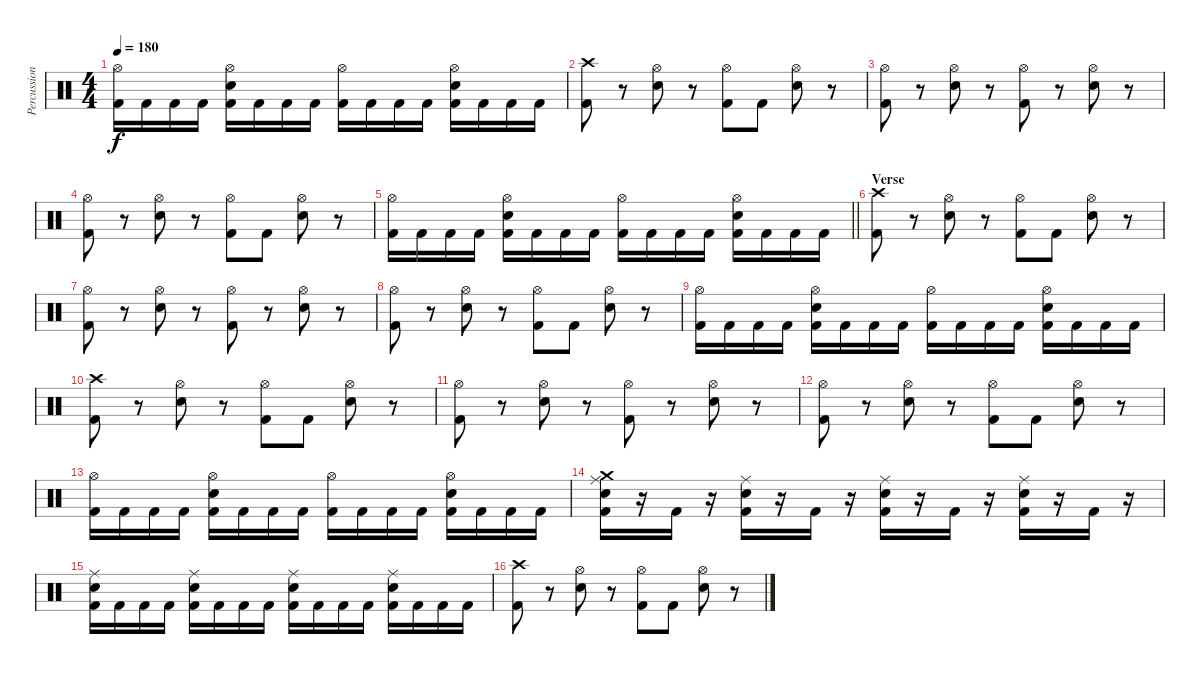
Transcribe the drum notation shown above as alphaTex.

\track ("Percussion" "Percussion") {instrument percussion}
\staff {score}
\articulation defaults
\ts (4 4)
\tempo 180
\clef neutral
\ks c
("Hi-Hat (open)" "Kick (hit) 2").16{dy f} "Kick (hit) 2".16 "Kick (hit) 2".16 "Kick (hit) 2".16 ("Hi-Hat (open)" "Snare (hit) 2" "Kick (hit) 2").16 "Kick (hit) 2".16 "Kick (hit) 2".16 "Kick (hit) 2".16 ("Hi-Hat (open)" "Kick (hit) 2").16 "Kick (hit) 2".16 "Kick (hit) 2".16 "Kick (hit) 2".16 ("Hi-Hat (open)" "Snare (hit) 2" "Kick (hit) 2").16 "Kick (hit) 2".16 "Kick (hit) 2".16 "Kick (hit) 2".16 |
("Crash high (hit)" "Kick (hit) 2").8 r.8 ("Hi-Hat (open)" "Snare (hit) 2").8 r.8 ("Hi-Hat (open)" "Kick (hit) 2").8 "Kick (hit) 2".8 ("Hi-Hat (open)" "Snare (hit) 2").8 r.8 |
("Hi-Hat (open)" "Kick (hit) 2").8 r.8 ("Hi-Hat (open)" "Snare (hit) 2").8 r.8 ("Hi-Hat (open)" "Kick (hit) 2").8 r.8 ("Hi-Hat (open)" "Snare (hit) 2").8 r.8 |
("Hi-Hat (open)" "Kick (hit) 2").8 r.8 ("Hi-Hat (open)" "Snare (hit) 2").8 r.8 ("Hi-Hat (open)" "Kick (hit) 2").8 "Kick (hit) 2".8 ("Hi-Hat (open)" "Snare (hit) 2").8 r.8 |
\barLineRight lightlight
("Hi-Hat (open)" "Kick (hit) 2").16 "Kick (hit) 2".16 "Kick (hit) 2".16 "Kick (hit) 2".16 ("Hi-Hat (open)" "Snare (hit) 2" "Kick (hit) 2").16 "Kick (hit) 2".16 "Kick (hit) 2".16 "Kick (hit) 2".16 ("Hi-Hat (open)" "Kick (hit) 2").16 "Kick (hit) 2".16 "Kick (hit) 2".16 "Kick (hit) 2".16 ("Hi-Hat (open)" "Snare (hit) 2" "Kick (hit) 2").16 "Kick (hit) 2".16 "Kick (hit) 2".16 "Kick (hit) 2".16 |
\section ("" "Verse")
("Crash high (hit)" "Kick (hit) 2").8 r.8 ("Hi-Hat (open)" "Snare (hit) 2").8 r.8 ("Hi-Hat (open)" "Kick (hit) 2").8 "Kick (hit) 2".8 ("Hi-Hat (open)" "Snare (hit) 2").8 r.8 |
("Hi-Hat (open)" "Kick (hit) 2").8 r.8 ("Hi-Hat (open)" "Snare (hit) 2").8 r.8 ("Hi-Hat (open)" "Kick (hit) 2").8 r.8 ("Hi-Hat (open)" "Snare (hit) 2").8 r.8 |
("Hi-Hat (open)" "Kick (hit) 2").8 r.8 ("Hi-Hat (open)" "Snare (hit) 2").8 r.8 ("Hi-Hat (open)" "Kick (hit) 2").8 "Kick (hit) 2".8 ("Hi-Hat (open)" "Snare (hit) 2").8 r.8 |
("Hi-Hat (open)" "Kick (hit) 2").16 "Kick (hit) 2".16 "Kick (hit) 2".16 "Kick (hit) 2".16 ("Hi-Hat (open)" "Snare (hit) 2" "Kick (hit) 2").16 "Kick (hit) 2".16 "Kick (hit) 2".16 "Kick (hit) 2".16 ("Hi-Hat (open)" "Kick (hit) 2").16 "Kick (hit) 2".16 "Kick (hit) 2".16 "Kick (hit) 2".16 ("Hi-Hat (open)" "Snare (hit) 2" "Kick (hit) 2").16 "Kick (hit) 2".16 "Kick (hit) 2".16 "Kick (hit) 2".16 |
("Crash high (hit)" "Kick (hit) 2").8 r.8 ("Hi-Hat (open)" "Snare (hit) 2").8 r.8 ("Hi-Hat (open)" "Kick (hit) 2").8 "Kick (hit) 2".8 ("Hi-Hat (open)" "Snare (hit) 2").8 r.8 |
("Hi-Hat (open)" "Kick (hit) 2").8 r.8 ("Hi-Hat (open)" "Snare (hit) 2").8 r.8 ("Hi-Hat (open)" "Kick (hit) 2").8 r.8 ("Hi-Hat (open)" "Snare (hit) 2").8 r.8 |
("Hi-Hat (open)" "Kick (hit) 2").8 r.8 ("Hi-Hat (open)" "Snare (hit) 2").8 r.8 ("Hi-Hat (open)" "Kick (hit) 2").8 "Kick (hit) 2".8 ("Hi-Hat (open)" "Snare (hit) 2").8 r.8 |
("Hi-Hat (open)" "Kick (hit) 2").16 "Kick (hit) 2".16 "Kick (hit) 2".16 "Kick (hit) 2".16 ("Hi-Hat (open)" "Snare (hit) 2" "Kick (hit) 2").16 "Kick (hit) 2".16 "Kick (hit) 2".16 "Kick (hit) 2".16 ("Hi-Hat (open)" "Kick (hit) 2").16 "Kick (hit) 2".16 "Kick (hit) 2".16 "Kick (hit) 2".16 ("Hi-Hat (open)" "Snare (hit) 2" "Kick (hit) 2").16 "Kick (hit) 2".16 "Kick (hit) 2".16 "Kick (hit) 2".16 |
("Crash medium (hit)" "Ride (middle)" "Snare (hit) 2" "Kick (hit) 2").16 r.16 "Kick (hit) 2".16 r.16 ("Ride (middle)" "Snare (hit) 2" "Kick (hit) 2").16 r.16 "Kick (hit) 2".16 r.16 ("Ride (middle)" "Snare (hit) 2" "Kick (hit) 2").16 r.16 "Kick (hit) 2".16 r.16 ("Ride (middle)" "Snare (hit) 2" "Kick (hit) 2").16 r.16 "Kick (hit) 2".16 r.16 |
("Ride (middle)" "Snare (hit) 2" "Kick (hit) 2").16 "Kick (hit) 2".16 "Kick (hit) 2".16 "Kick (hit) 2".16 ("Ride (middle)" "Snare (hit) 2" "Kick (hit) 2").16 "Kick (hit) 2".16 "Kick (hit) 2".16 "Kick (hit) 2".16 ("Ride (middle)" "Snare (hit) 2" "Kick (hit) 2").16 "Kick (hit) 2".16 "Kick (hit) 2".16 "Kick (hit) 2".16 ("Ride (middle)" "Snare (hit) 2" "Kick (hit) 2").16 "Kick (hit) 2".16 "Kick (hit) 2".16 "Kick (hit) 2".16 |
("Crash high (hit)" "Kick (hit) 2").8 r.8 ("Hi-Hat (open)" "Snare (hit) 2").8 r.8 ("Hi-Hat (open)" "Kick (hit) 2").8 "Kick (hit) 2".8 ("Hi-Hat (open)" "Snare (hit) 2").8 r.8
